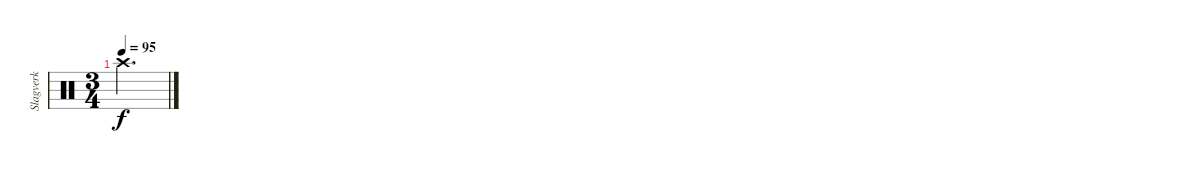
\track ("Slagverk" "Slagverk") {instrument percussion}
\staff {score}
\articulation defaults
\ts (3 4)
\tempo 95
\clef neutral
\ks c "Crash high (hit)".2{d dy f}
